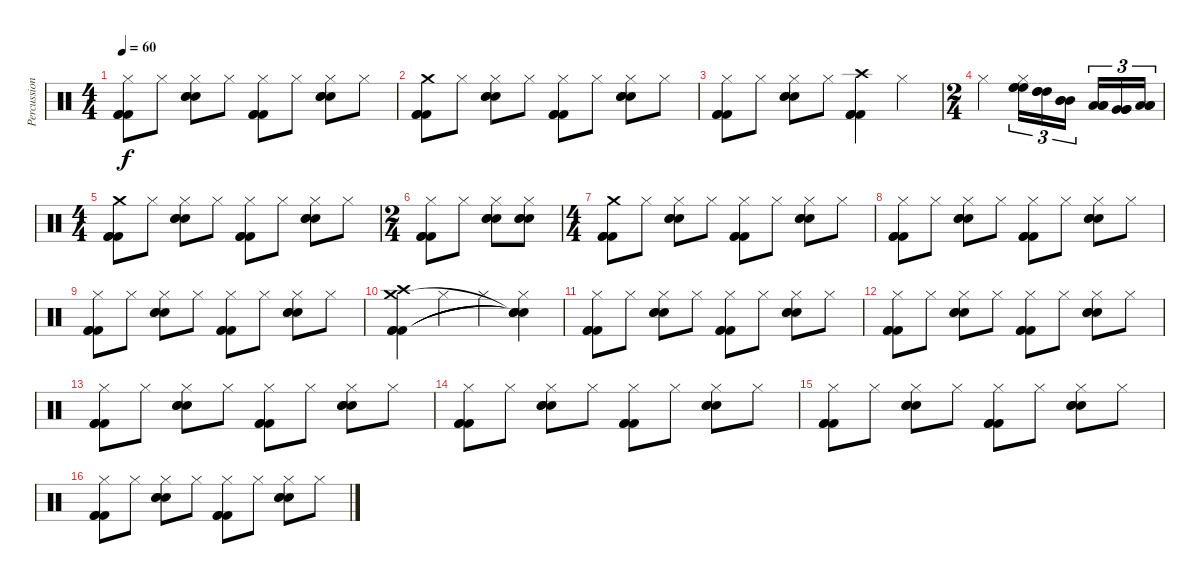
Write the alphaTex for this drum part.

\track ("Percussion (Nigel Olsson)" "Percussion") {instrument percussion}
\staff {score}
\articulation defaults
\ts (4 4)
\tempo 60
\clef neutral
\ks c
("Hi-Hat (closed)" "Kick (hit) 2" "Kick (hit) 2" "Kick (hit) 2").8{dy f} "Hi-Hat (closed)".8 ("Hi-Hat (closed)" "Electric Snare (hit)" "Electric Snare (hit)" "Electric Snare (hit)").8 "Hi-Hat (closed)".8 ("Hi-Hat (closed)" "Kick (hit) 2" "Kick (hit) 2" "Kick (hit) 2").8 "Hi-Hat (closed)".8 ("Hi-Hat (closed)" "Electric Snare (hit)" "Electric Snare (hit)" "Electric Snare (hit)").8 "Hi-Hat (closed)".8 |
("Crash medium (hit)" "Kick (hit) 2" "Kick (hit) 2" "Kick (hit) 2").8 "Hi-Hat (closed)".8 ("Hi-Hat (closed)" "Electric Snare (hit)" "Electric Snare (hit)" "Electric Snare (hit)").8 "Hi-Hat (closed)".8 ("Hi-Hat (closed)" "Kick (hit) 2" "Kick (hit) 2" "Kick (hit) 2").8 "Hi-Hat (closed)".8 ("Hi-Hat (closed)" "Electric Snare (hit)" "Electric Snare (hit)" "Electric Snare (hit)").8 "Hi-Hat (closed)".8 |
("Hi-Hat (closed)" "Kick (hit) 2" "Kick (hit) 2" "Kick (hit) 2").8 "Hi-Hat (closed)".8 ("Hi-Hat (closed)" "Electric Snare (hit)" "Electric Snare (hit)" "Electric Snare (hit)").8 "Hi-Hat (closed)".8 ("Crash high (hit)" "Kick (hit) 2" "Kick (hit) 2" "Kick (hit) 2").4 "Hi-Hat (closed)".4 |
\ts (2 4)
"Hi-Hat (closed)".4 ("Hi-Hat (closed)" "High Floor Tom (hit)" "High Floor Tom (hit)" "High Floor Tom (hit)").16{tu (3 2)} ("High Tom (hit)" "High Tom (hit)" "High Tom (hit)").16{tu (3 2)} ("Mid Tom (hit)" "Mid Tom (hit)" "Mid Tom (hit)").16{tu (3 2)} ("Low Tom (hit)" "Low Tom (hit)" "Low Tom (hit)").16{tu (3 2)} ("Very Low Tom (hit)" "Very Low Tom (hit)" "Very Low Tom (hit)").16{tu (3 2)} ("Low Floor Tom (hit)" "Low Floor Tom (hit)" "Low Floor Tom (hit)").16{tu (3 2)} |
\ts (4 4)
("Crash medium (hit)" "Kick (hit) 2" "Kick (hit) 2" "Kick (hit) 2").8 "Hi-Hat (closed)".8 ("Hi-Hat (closed)" "Electric Snare (hit)" "Electric Snare (hit)" "Electric Snare (hit)").8 "Hi-Hat (closed)".8 ("Hi-Hat (closed)" "Kick (hit) 2" "Kick (hit) 2" "Kick (hit) 2").8 "Hi-Hat (closed)".8 ("Hi-Hat (closed)" "Electric Snare (hit)" "Electric Snare (hit)" "Electric Snare (hit)").8 "Hi-Hat (closed)".8 |
\ts (2 4)
("Hi-Hat (closed)" "Kick (hit) 2" "Kick (hit) 2" "Kick (hit) 2").8 "Hi-Hat (closed)".8 ("Hi-Hat (closed)" "Electric Snare (hit)" "Electric Snare (hit)" "Electric Snare (hit)").8 ("Hi-Hat (closed)" "Electric Snare (hit)" "Electric Snare (hit)" "Electric Snare (hit)").8 |
\ts (4 4)
("Crash medium (hit)" "Kick (hit) 2" "Kick (hit) 2" "Kick (hit) 2").8 "Hi-Hat (closed)".8 ("Hi-Hat (closed)" "Electric Snare (hit)" "Electric Snare (hit)" "Electric Snare (hit)").8 "Hi-Hat (closed)".8 ("Hi-Hat (closed)" "Kick (hit) 2" "Kick (hit) 2" "Kick (hit) 2").8 "Hi-Hat (closed)".8 ("Hi-Hat (closed)" "Electric Snare (hit)" "Electric Snare (hit)" "Electric Snare (hit)").8 "Hi-Hat (closed)".8 |
("Hi-Hat (closed)" "Kick (hit) 2" "Kick (hit) 2" "Kick (hit) 2").8 "Hi-Hat (closed)".8 ("Hi-Hat (closed)" "Electric Snare (hit)" "Electric Snare (hit)" "Electric Snare (hit)").8 "Hi-Hat (closed)".8 ("Hi-Hat (closed)" "Kick (hit) 2" "Kick (hit) 2" "Kick (hit) 2").8 "Hi-Hat (closed)".8 ("Hi-Hat (closed)" "Electric Snare (hit)" "Electric Snare (hit)" "Electric Snare (hit)").8 "Hi-Hat (closed)".8 |
("Hi-Hat (closed)" "Kick (hit) 2" "Kick (hit) 2" "Kick (hit) 2").8 "Hi-Hat (closed)".8 ("Hi-Hat (closed)" "Electric Snare (hit)" "Electric Snare (hit)" "Electric Snare (hit)").8 "Hi-Hat (closed)".8 ("Hi-Hat (closed)" "Kick (hit) 2" "Kick (hit) 2" "Kick (hit) 2").8 "Hi-Hat (closed)".8 ("Hi-Hat (closed)" "Electric Snare (hit)" "Electric Snare (hit)" "Electric Snare (hit)").8 "Hi-Hat (closed)".8 |
("Crash high (hit)" "Crash medium (hit)" "Kick (hit) 2" "Kick (hit) 2" "Kick (hit) 2").4 "Hi-Hat (closed)".4 "Hi-Hat (closed)".4 ("Hi-Hat (closed)" "Snare (hit)"{t} "Snare (hit)"{t} "Snare (hit)"{t} "Snare (hit)"{t}).4 |
("Hi-Hat (closed)" "Kick (hit) 2" "Kick (hit) 2" "Kick (hit) 2").8 "Hi-Hat (closed)".8 ("Hi-Hat (closed)" "Electric Snare (hit)" "Electric Snare (hit)" "Electric Snare (hit)").8 "Hi-Hat (closed)".8 ("Hi-Hat (closed)" "Kick (hit) 2" "Kick (hit) 2" "Kick (hit) 2").8 "Hi-Hat (closed)".8 ("Hi-Hat (closed)" "Electric Snare (hit)" "Electric Snare (hit)" "Electric Snare (hit)").8 "Hi-Hat (closed)".8 |
("Hi-Hat (closed)" "Kick (hit) 2" "Kick (hit) 2" "Kick (hit) 2").8 "Hi-Hat (closed)".8 ("Hi-Hat (closed)" "Electric Snare (hit)" "Electric Snare (hit)" "Electric Snare (hit)").8 "Hi-Hat (closed)".8 ("Hi-Hat (closed)" "Kick (hit) 2" "Kick (hit) 2" "Kick (hit) 2").8 "Hi-Hat (closed)".8 ("Hi-Hat (closed)" "Electric Snare (hit)" "Electric Snare (hit)" "Electric Snare (hit)").8 "Hi-Hat (closed)".8 |
("Hi-Hat (closed)" "Kick (hit) 2" "Kick (hit) 2" "Kick (hit) 2").8 "Hi-Hat (closed)".8 ("Hi-Hat (closed)" "Electric Snare (hit)" "Electric Snare (hit)" "Electric Snare (hit)").8 "Hi-Hat (closed)".8 ("Hi-Hat (closed)" "Kick (hit) 2" "Kick (hit) 2" "Kick (hit) 2").8 "Hi-Hat (closed)".8 ("Hi-Hat (closed)" "Electric Snare (hit)" "Electric Snare (hit)" "Electric Snare (hit)").8 "Hi-Hat (closed)".8 |
("Hi-Hat (closed)" "Kick (hit) 2" "Kick (hit) 2" "Kick (hit) 2").8 "Hi-Hat (closed)".8 ("Hi-Hat (closed)" "Electric Snare (hit)" "Electric Snare (hit)" "Electric Snare (hit)").8 "Hi-Hat (closed)".8 ("Hi-Hat (closed)" "Kick (hit) 2" "Kick (hit) 2" "Kick (hit) 2").8 "Hi-Hat (closed)".8 ("Hi-Hat (closed)" "Electric Snare (hit)" "Electric Snare (hit)" "Electric Snare (hit)").8 "Hi-Hat (closed)".8 |
("Hi-Hat (closed)" "Kick (hit) 2" "Kick (hit) 2" "Kick (hit) 2").8 "Hi-Hat (closed)".8 ("Hi-Hat (closed)" "Electric Snare (hit)" "Electric Snare (hit)" "Electric Snare (hit)").8 "Hi-Hat (closed)".8 ("Hi-Hat (closed)" "Kick (hit) 2" "Kick (hit) 2" "Kick (hit) 2").8 "Hi-Hat (closed)".8 ("Hi-Hat (closed)" "Electric Snare (hit)" "Electric Snare (hit)" "Electric Snare (hit)").8 "Hi-Hat (closed)".8 |
("Hi-Hat (closed)" "Kick (hit) 2" "Kick (hit) 2" "Kick (hit) 2").8 "Hi-Hat (closed)".8 ("Hi-Hat (closed)" "Electric Snare (hit)" "Electric Snare (hit)" "Electric Snare (hit)").8 "Hi-Hat (closed)".8 ("Hi-Hat (closed)" "Kick (hit) 2" "Kick (hit) 2" "Kick (hit) 2").8 "Hi-Hat (closed)".8 ("Hi-Hat (closed)" "Electric Snare (hit)" "Electric Snare (hit)" "Electric Snare (hit)").8 "Hi-Hat (closed)".8
